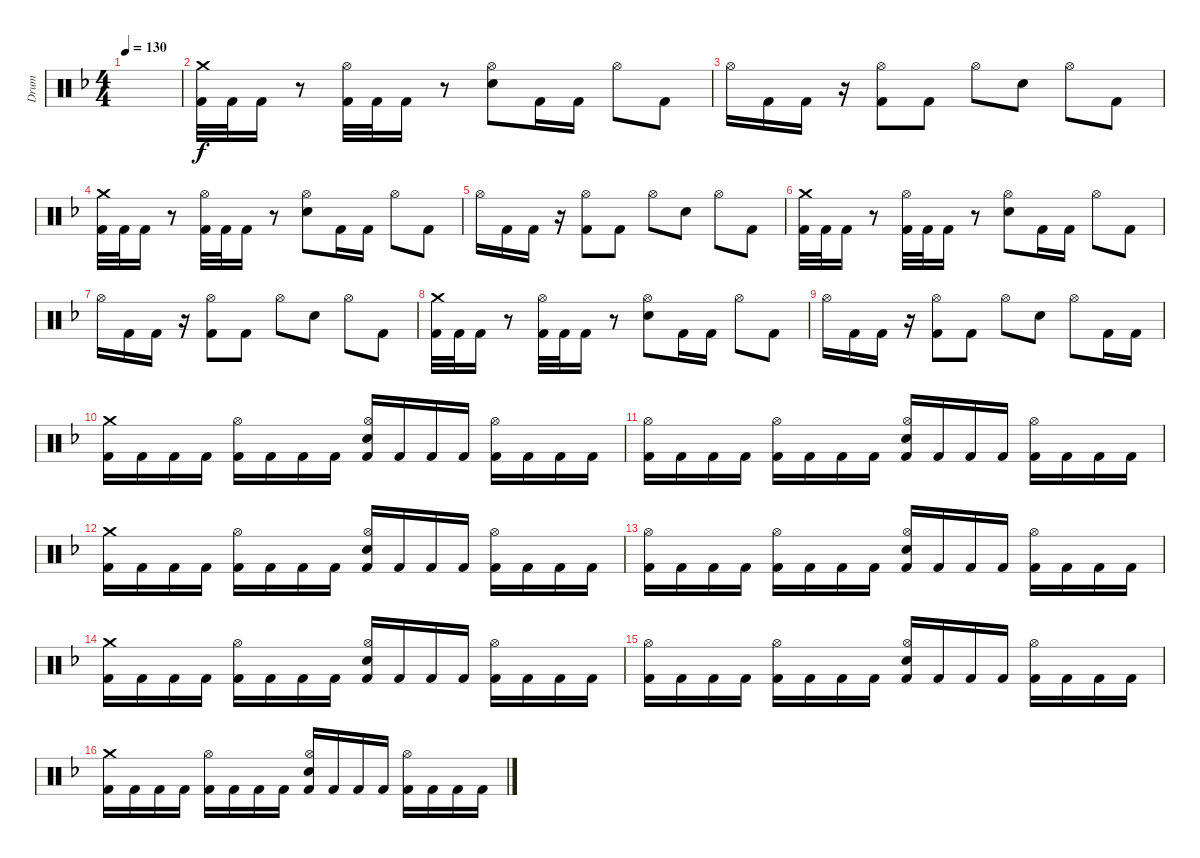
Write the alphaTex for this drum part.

\track ("Drum" "Drum") {instrument percussion}
\staff {score}
\articulation defaults
\ts (4 4)
\tempo 130
\clef neutral
\ks f
|
("Crash medium (hit)" "Kick (hit) 2").32 "Kick (hit) 2".32 "Kick (hit) 2".16 r.8 ("Hi-Hat (open)" "Kick (hit) 2").32 "Kick (hit) 2".32 "Kick (hit) 2".16 r.8 ("Hi-Hat (open)" "Electric Snare (hit)").8 "Kick (hit) 2".16 "Kick (hit) 2".16 "Hi-Hat (open)".8 "Kick (hit) 2".8 |
"Hi-Hat (open)".16 "Kick (hit) 2".16 "Kick (hit) 2".16 r.16 ("Hi-Hat (open)" "Kick (hit) 2").8 "Kick (hit) 2".8 "Hi-Hat (open)".8 "Electric Snare (hit)".8 "Hi-Hat (open)".8 "Kick (hit) 2".8 |
("Crash medium (hit)" "Kick (hit) 2").32 "Kick (hit) 2".32 "Kick (hit) 2".16 r.8 ("Hi-Hat (open)" "Kick (hit) 2").32 "Kick (hit) 2".32 "Kick (hit) 2".16 r.8 ("Hi-Hat (open)" "Electric Snare (hit)").8 "Kick (hit) 2".16 "Kick (hit) 2".16 "Hi-Hat (open)".8 "Kick (hit) 2".8 |
"Hi-Hat (open)".16 "Kick (hit) 2".16 "Kick (hit) 2".16 r.16 ("Hi-Hat (open)" "Kick (hit) 2").8 "Kick (hit) 2".8 "Hi-Hat (open)".8 "Electric Snare (hit)".8 "Hi-Hat (open)".8 "Kick (hit) 2".8 |
("Crash medium (hit)" "Kick (hit) 2").32 "Kick (hit) 2".32 "Kick (hit) 2".16 r.8 ("Hi-Hat (open)" "Kick (hit) 2").32 "Kick (hit) 2".32 "Kick (hit) 2".16 r.8 ("Hi-Hat (open)" "Electric Snare (hit)").8 "Kick (hit) 2".16 "Kick (hit) 2".16 "Hi-Hat (open)".8 "Kick (hit) 2".8 |
"Hi-Hat (open)".16 "Kick (hit) 2".16 "Kick (hit) 2".16 r.16 ("Hi-Hat (open)" "Kick (hit) 2").8 "Kick (hit) 2".8 "Hi-Hat (open)".8 "Electric Snare (hit)".8 "Hi-Hat (open)".8 "Kick (hit) 2".8 |
("Crash medium (hit)" "Kick (hit) 2").32 "Kick (hit) 2".32 "Kick (hit) 2".16 r.8 ("Hi-Hat (open)" "Kick (hit) 2").32 "Kick (hit) 2".32 "Kick (hit) 2".16 r.8 ("Hi-Hat (open)" "Electric Snare (hit)").8 "Kick (hit) 2".16 "Kick (hit) 2".16 "Hi-Hat (open)".8 "Kick (hit) 2".8 |
"Hi-Hat (open)".16 "Kick (hit) 2".16 "Kick (hit) 2".16 r.16 ("Hi-Hat (open)" "Kick (hit) 2").8 "Kick (hit) 2".8 "Hi-Hat (open)".8 "Electric Snare (hit)".8 "Hi-Hat (open)".8 "Kick (hit) 2".16 "Kick (hit) 2".16 |
("Crash medium (hit)" "Kick (hit) 2").16 "Kick (hit) 2".16 "Kick (hit) 2".16 "Kick (hit) 2".16 ("Hi-Hat (open)" "Kick (hit) 2").16 "Kick (hit) 2".16 "Kick (hit) 2".16 "Kick (hit) 2".16 ("Hi-Hat (open)" "Electric Snare (hit)" "Kick (hit) 2").16 "Kick (hit) 2".16 "Kick (hit) 2".16 "Kick (hit) 2".16 ("Hi-Hat (open)" "Kick (hit) 2").16 "Kick (hit) 2".16 "Kick (hit) 2".16 "Kick (hit) 2".16 |
("Hi-Hat (open)" "Kick (hit) 2").16 "Kick (hit) 2".16 "Kick (hit) 2".16 "Kick (hit) 2".16 ("Hi-Hat (open)" "Kick (hit) 2").16 "Kick (hit) 2".16 "Kick (hit) 2".16 "Kick (hit) 2".16 ("Hi-Hat (open)" "Electric Snare (hit)" "Kick (hit) 2").16 "Kick (hit) 2".16 "Kick (hit) 2".16 "Kick (hit) 2".16 ("Hi-Hat (open)" "Kick (hit) 2").16 "Kick (hit) 2".16 "Kick (hit) 2".16 "Kick (hit) 2".16 |
("Crash medium (hit)" "Kick (hit) 2").16 "Kick (hit) 2".16 "Kick (hit) 2".16 "Kick (hit) 2".16 ("Hi-Hat (open)" "Kick (hit) 2").16 "Kick (hit) 2".16 "Kick (hit) 2".16 "Kick (hit) 2".16 ("Hi-Hat (open)" "Electric Snare (hit)" "Kick (hit) 2").16 "Kick (hit) 2".16 "Kick (hit) 2".16 "Kick (hit) 2".16 ("Hi-Hat (open)" "Kick (hit) 2").16 "Kick (hit) 2".16 "Kick (hit) 2".16 "Kick (hit) 2".16 |
("Hi-Hat (open)" "Kick (hit) 2").16 "Kick (hit) 2".16 "Kick (hit) 2".16 "Kick (hit) 2".16 ("Hi-Hat (open)" "Kick (hit) 2").16 "Kick (hit) 2".16 "Kick (hit) 2".16 "Kick (hit) 2".16 ("Hi-Hat (open)" "Electric Snare (hit)" "Kick (hit) 2").16 "Kick (hit) 2".16 "Kick (hit) 2".16 "Kick (hit) 2".16 ("Hi-Hat (open)" "Kick (hit) 2").16 "Kick (hit) 2".16 "Kick (hit) 2".16 "Kick (hit) 2".16 |
("Crash medium (hit)" "Kick (hit) 2").16 "Kick (hit) 2".16 "Kick (hit) 2".16 "Kick (hit) 2".16 ("Hi-Hat (open)" "Kick (hit) 2").16 "Kick (hit) 2".16 "Kick (hit) 2".16 "Kick (hit) 2".16 ("Hi-Hat (open)" "Electric Snare (hit)" "Kick (hit) 2").16 "Kick (hit) 2".16 "Kick (hit) 2".16 "Kick (hit) 2".16 ("Hi-Hat (open)" "Kick (hit) 2").16 "Kick (hit) 2".16 "Kick (hit) 2".16 "Kick (hit) 2".16 |
("Hi-Hat (open)" "Kick (hit) 2").16 "Kick (hit) 2".16 "Kick (hit) 2".16 "Kick (hit) 2".16 ("Hi-Hat (open)" "Kick (hit) 2").16 "Kick (hit) 2".16 "Kick (hit) 2".16 "Kick (hit) 2".16 ("Hi-Hat (open)" "Electric Snare (hit)" "Kick (hit) 2").16 "Kick (hit) 2".16 "Kick (hit) 2".16 "Kick (hit) 2".16 ("Hi-Hat (open)" "Kick (hit) 2").16 "Kick (hit) 2".16 "Kick (hit) 2".16 "Kick (hit) 2".16 |
("Crash medium (hit)" "Kick (hit) 2").16 "Kick (hit) 2".16 "Kick (hit) 2".16 "Kick (hit) 2".16 ("Hi-Hat (open)" "Kick (hit) 2").16 "Kick (hit) 2".16 "Kick (hit) 2".16 "Kick (hit) 2".16 ("Hi-Hat (open)" "Electric Snare (hit)" "Kick (hit) 2").16 "Kick (hit) 2".16 "Kick (hit) 2".16 "Kick (hit) 2".16 ("Hi-Hat (open)" "Kick (hit) 2").16 "Kick (hit) 2".16 "Kick (hit) 2".16 "Kick (hit) 2".16
